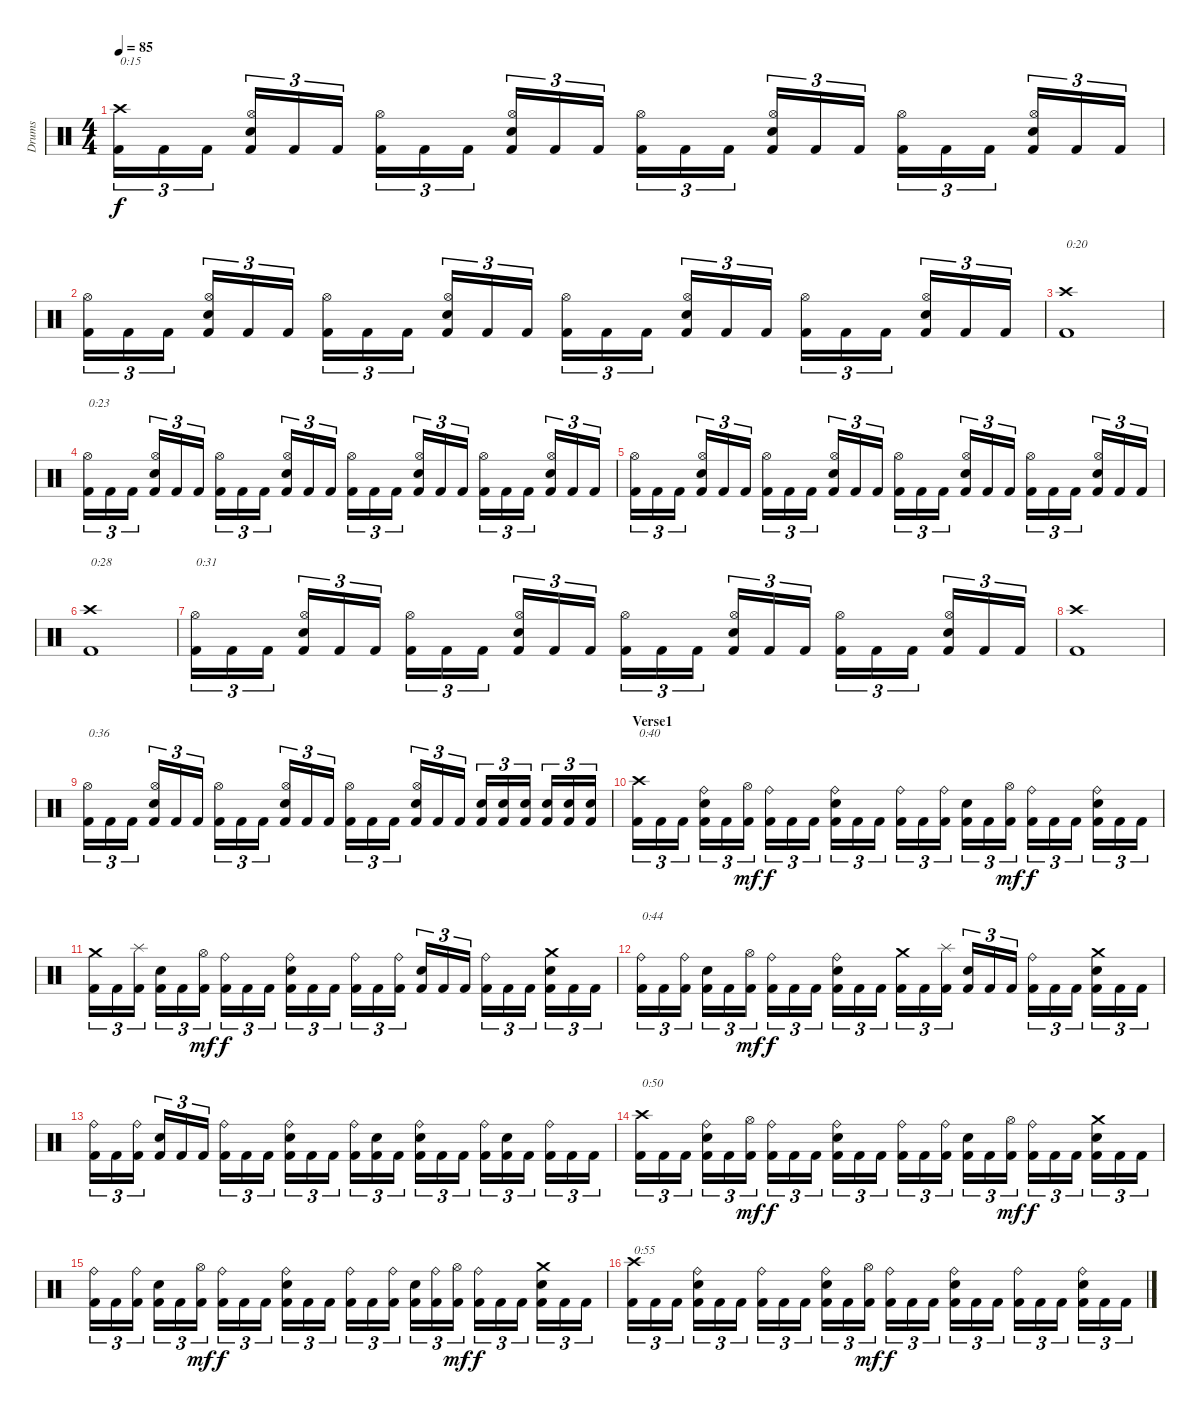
\track ("Drums" "Drums") {instrument percussion}
\staff {score}
\articulation defaults
\ts (4 4)
\tempo 85
\clef neutral
\ks c
("Crash high (hit)" "Kick (hit) 2").16{tu (3 2) txt "0:15" dy f} "Kick (hit) 2".16{tu (3 2)} "Kick (hit) 2".16{tu (3 2)} ("Hi-Hat (open)" "Electric Snare (hit)" "Kick (hit) 2").16{tu (3 2)} "Kick (hit) 2".16{tu (3 2)} "Kick (hit) 2".16{tu (3 2)} ("Hi-Hat (open)" "Kick (hit) 2").16{tu (3 2)} "Kick (hit) 2".16{tu (3 2)} "Kick (hit) 2".16{tu (3 2)} ("Hi-Hat (open)" "Electric Snare (hit)" "Kick (hit) 2").16{tu (3 2)} "Kick (hit) 2".16{tu (3 2)} "Kick (hit) 2".16{tu (3 2)} ("Hi-Hat (open)" "Kick (hit) 2").16{tu (3 2)} "Kick (hit) 2".16{tu (3 2)} "Kick (hit) 2".16{tu (3 2)} ("Hi-Hat (open)" "Electric Snare (hit)" "Kick (hit) 2").16{tu (3 2)} "Kick (hit) 2".16{tu (3 2)} "Kick (hit) 2".16{tu (3 2)} ("Hi-Hat (open)" "Kick (hit) 2").16{tu (3 2)} "Kick (hit) 2".16{tu (3 2)} "Kick (hit) 2".16{tu (3 2)} ("Hi-Hat (open)" "Electric Snare (hit)" "Kick (hit) 2").16{tu (3 2)} "Kick (hit) 2".16{tu (3 2)} "Kick (hit) 2".16{tu (3 2)} |
("Hi-Hat (open)" "Kick (hit) 2").16{tu (3 2)} "Kick (hit) 2".16{tu (3 2)} "Kick (hit) 2".16{tu (3 2)} ("Hi-Hat (open)" "Electric Snare (hit)" "Kick (hit) 2").16{tu (3 2)} "Kick (hit) 2".16{tu (3 2)} "Kick (hit) 2".16{tu (3 2)} ("Hi-Hat (open)" "Kick (hit) 2").16{tu (3 2)} "Kick (hit) 2".16{tu (3 2)} "Kick (hit) 2".16{tu (3 2)} ("Hi-Hat (open)" "Electric Snare (hit)" "Kick (hit) 2").16{tu (3 2)} "Kick (hit) 2".16{tu (3 2)} "Kick (hit) 2".16{tu (3 2)} ("Hi-Hat (open)" "Kick (hit) 2").16{tu (3 2)} "Kick (hit) 2".16{tu (3 2)} "Kick (hit) 2".16{tu (3 2)} ("Hi-Hat (open)" "Electric Snare (hit)" "Kick (hit) 2").16{tu (3 2)} "Kick (hit) 2".16{tu (3 2)} "Kick (hit) 2".16{tu (3 2)} ("Hi-Hat (open)" "Kick (hit) 2").16{tu (3 2)} "Kick (hit) 2".16{tu (3 2)} "Kick (hit) 2".16{tu (3 2)} ("Hi-Hat (open)" "Electric Snare (hit)" "Kick (hit) 2").16{tu (3 2)} "Kick (hit) 2".16{tu (3 2)} "Kick (hit) 2".16{tu (3 2)} |
("Crash high (hit)" "Kick (hit) 2").1{txt "0:20"} |
("Hi-Hat (open)" "Kick (hit) 2").16{tu (3 2) txt "0:23"} "Kick (hit) 2".16{tu (3 2)} "Kick (hit) 2".16{tu (3 2)} ("Hi-Hat (open)" "Electric Snare (hit)" "Kick (hit) 2").16{tu (3 2)} "Kick (hit) 2".16{tu (3 2)} "Kick (hit) 2".16{tu (3 2)} ("Hi-Hat (open)" "Kick (hit) 2").16{tu (3 2)} "Kick (hit) 2".16{tu (3 2)} "Kick (hit) 2".16{tu (3 2)} ("Hi-Hat (open)" "Electric Snare (hit)" "Kick (hit) 2").16{tu (3 2)} "Kick (hit) 2".16{tu (3 2)} "Kick (hit) 2".16{tu (3 2)} ("Hi-Hat (open)" "Kick (hit) 2").16{tu (3 2)} "Kick (hit) 2".16{tu (3 2)} "Kick (hit) 2".16{tu (3 2)} ("Hi-Hat (open)" "Electric Snare (hit)" "Kick (hit) 2").16{tu (3 2)} "Kick (hit) 2".16{tu (3 2)} "Kick (hit) 2".16{tu (3 2)} ("Hi-Hat (open)" "Kick (hit) 2").16{tu (3 2)} "Kick (hit) 2".16{tu (3 2)} "Kick (hit) 2".16{tu (3 2)} ("Hi-Hat (open)" "Electric Snare (hit)" "Kick (hit) 2").16{tu (3 2)} "Kick (hit) 2".16{tu (3 2)} "Kick (hit) 2".16{tu (3 2)} |
("Hi-Hat (open)" "Kick (hit) 2").16{tu (3 2)} "Kick (hit) 2".16{tu (3 2)} "Kick (hit) 2".16{tu (3 2)} ("Hi-Hat (open)" "Electric Snare (hit)" "Kick (hit) 2").16{tu (3 2)} "Kick (hit) 2".16{tu (3 2)} "Kick (hit) 2".16{tu (3 2)} ("Hi-Hat (open)" "Kick (hit) 2").16{tu (3 2)} "Kick (hit) 2".16{tu (3 2)} "Kick (hit) 2".16{tu (3 2)} ("Hi-Hat (open)" "Electric Snare (hit)" "Kick (hit) 2").16{tu (3 2)} "Kick (hit) 2".16{tu (3 2)} "Kick (hit) 2".16{tu (3 2)} ("Hi-Hat (open)" "Kick (hit) 2").16{tu (3 2)} "Kick (hit) 2".16{tu (3 2)} "Kick (hit) 2".16{tu (3 2)} ("Hi-Hat (open)" "Electric Snare (hit)" "Kick (hit) 2").16{tu (3 2)} "Kick (hit) 2".16{tu (3 2)} "Kick (hit) 2".16{tu (3 2)} ("Hi-Hat (open)" "Kick (hit) 2").16{tu (3 2)} "Kick (hit) 2".16{tu (3 2)} "Kick (hit) 2".16{tu (3 2)} ("Hi-Hat (open)" "Electric Snare (hit)" "Kick (hit) 2").16{tu (3 2)} "Kick (hit) 2".16{tu (3 2)} "Kick (hit) 2".16{tu (3 2)} |
("Crash high (hit)" "Kick (hit) 2").1{txt "0:28"} |
("Hi-Hat (open)" "Kick (hit) 2").16{tu (3 2) txt "0:31"} "Kick (hit) 2".16{tu (3 2)} "Kick (hit) 2".16{tu (3 2)} ("Hi-Hat (open)" "Electric Snare (hit)" "Kick (hit) 2").16{tu (3 2)} "Kick (hit) 2".16{tu (3 2)} "Kick (hit) 2".16{tu (3 2)} ("Hi-Hat (open)" "Kick (hit) 2").16{tu (3 2)} "Kick (hit) 2".16{tu (3 2)} "Kick (hit) 2".16{tu (3 2)} ("Hi-Hat (open)" "Electric Snare (hit)" "Kick (hit) 2").16{tu (3 2)} "Kick (hit) 2".16{tu (3 2)} "Kick (hit) 2".16{tu (3 2)} ("Hi-Hat (open)" "Kick (hit) 2").16{tu (3 2)} "Kick (hit) 2".16{tu (3 2)} "Kick (hit) 2".16{tu (3 2)} ("Hi-Hat (open)" "Electric Snare (hit)" "Kick (hit) 2").16{tu (3 2)} "Kick (hit) 2".16{tu (3 2)} "Kick (hit) 2".16{tu (3 2)} ("Hi-Hat (open)" "Kick (hit) 2").16{tu (3 2)} "Kick (hit) 2".16{tu (3 2)} "Kick (hit) 2".16{tu (3 2)} ("Hi-Hat (open)" "Electric Snare (hit)" "Kick (hit) 2").16{tu (3 2)} "Kick (hit) 2".16{tu (3 2)} "Kick (hit) 2".16{tu (3 2)} |
("Crash high (hit)" "Kick (hit) 2").1 |
("Hi-Hat (open)" "Kick (hit) 2").16{tu (3 2) txt "0:36"} "Kick (hit) 2".16{tu (3 2)} "Kick (hit) 2".16{tu (3 2)} ("Hi-Hat (open)" "Electric Snare (hit)" "Kick (hit) 2").16{tu (3 2)} "Kick (hit) 2".16{tu (3 2)} "Kick (hit) 2".16{tu (3 2)} ("Hi-Hat (open)" "Kick (hit) 2").16{tu (3 2)} "Kick (hit) 2".16{tu (3 2)} "Kick (hit) 2".16{tu (3 2)} ("Hi-Hat (open)" "Electric Snare (hit)" "Kick (hit) 2").16{tu (3 2)} "Kick (hit) 2".16{tu (3 2)} "Kick (hit) 2".16{tu (3 2)} ("Hi-Hat (open)" "Kick (hit) 2").16{tu (3 2)} "Kick (hit) 2".16{tu (3 2)} "Kick (hit) 2".16{tu (3 2)} ("Hi-Hat (open)" "Electric Snare (hit)" "Kick (hit) 2").16{tu (3 2)} "Kick (hit) 2".16{tu (3 2)} "Kick (hit) 2".16{tu (3 2)} ("Electric Snare (hit)" "Kick (hit) 2").16{tu (3 2)} ("Electric Snare (hit)" "Kick (hit) 2").16{tu (3 2)} ("Electric Snare (hit)" "Kick (hit) 2").16{tu (3 2)} ("Electric Snare (hit)" "Kick (hit) 2").16{tu (3 2)} ("Electric Snare (hit)" "Kick (hit) 2").16{tu (3 2)} ("Electric Snare (hit)" "Kick (hit) 2").16{tu (3 2)} |
\section ("" "Verse1")
("Crash high (hit)" "Kick (hit) 2").16{tu (3 2) txt "0:40"} "Kick (hit) 2".16{tu (3 2)} "Kick (hit) 2".16{tu (3 2)} ("Ride (bell)" "Electric Snare (hit)" "Kick (hit) 2").16{tu (3 2)} "Kick (hit) 2".16{tu (3 2)} ("Hi-Hat (open)" "Kick (hit) 2").16{tu (3 2) dy mf} ("Ride (bell)" "Kick (hit) 2").16{tu (3 2) dy f} "Kick (hit) 2".16{tu (3 2)} "Kick (hit) 2".16{tu (3 2)} ("Ride (bell)" "Electric Snare (hit)" "Kick (hit) 2").16{tu (3 2)} "Kick (hit) 2".16{tu (3 2)} "Kick (hit) 2".16{tu (3 2)} ("Ride (bell)" "Kick (hit) 2").16{tu (3 2)} "Kick (hit) 2".16{tu (3 2)} ("Ride (bell)" "Kick (hit) 2").16{tu (3 2)} ("Electric Snare (hit)" "Kick (hit) 2").16{tu (3 2)} "Kick (hit) 2".16{tu (3 2)} ("Hi-Hat (open)" "Kick (hit) 2").16{tu (3 2) dy mf} ("Ride (bell)" "Kick (hit) 2").16{tu (3 2) dy f} "Kick (hit) 2".16{tu (3 2)} "Kick (hit) 2".16{tu (3 2)} ("Ride (bell)" "Electric Snare (hit)" "Kick (hit) 2").16{tu (3 2)} "Kick (hit) 2".16{tu (3 2)} "Kick (hit) 2".16{tu (3 2)} |
("Crash medium (hit)" "Kick (hit) 2").16{tu (3 2)} "Kick (hit) 2".16{tu (3 2)} ("Splash (hit)" "Kick (hit) 2").16{tu (3 2)} ("Electric Snare (hit)" "Kick (hit) 2").16{tu (3 2)} "Kick (hit) 2".16{tu (3 2)} ("Hi-Hat (open)" "Kick (hit) 2").16{tu (3 2) dy mf} ("Ride (bell)" "Kick (hit) 2").16{tu (3 2) dy f} "Kick (hit) 2".16{tu (3 2)} "Kick (hit) 2".16{tu (3 2)} ("Ride (bell)" "Electric Snare (hit)" "Kick (hit) 2").16{tu (3 2)} "Kick (hit) 2".16{tu (3 2)} "Kick (hit) 2".16{tu (3 2)} ("Ride (bell)" "Kick (hit) 2").16{tu (3 2)} "Kick (hit) 2".16{tu (3 2)} ("Ride (bell)" "Kick (hit) 2").16{tu (3 2)} ("Electric Snare (hit)" "Kick (hit) 2").16{tu (3 2)} "Kick (hit) 2".16{tu (3 2)} "Kick (hit) 2".16{tu (3 2)} ("Ride (bell)" "Kick (hit) 2").16{tu (3 2)} "Kick (hit) 2".16{tu (3 2)} "Kick (hit) 2".16{tu (3 2)} ("Crash medium (hit)" "Electric Snare (hit)" "Kick (hit) 2").16{tu (3 2)} "Kick (hit) 2".16{tu (3 2)} "Kick (hit) 2".16{tu (3 2)} |
("Ride (bell)" "Kick (hit) 2").16{tu (3 2) txt "0:44"} "Kick (hit) 2".16{tu (3 2)} ("Ride (bell)" "Kick (hit) 2").16{tu (3 2)} ("Electric Snare (hit)" "Kick (hit) 2").16{tu (3 2)} "Kick (hit) 2".16{tu (3 2)} ("Hi-Hat (open)" "Kick (hit) 2").16{tu (3 2) dy mf} ("Ride (bell)" "Kick (hit) 2").16{tu (3 2) dy f} "Kick (hit) 2".16{tu (3 2)} "Kick (hit) 2".16{tu (3 2)} ("Ride (bell)" "Electric Snare (hit)" "Kick (hit) 2").16{tu (3 2)} "Kick (hit) 2".16{tu (3 2)} "Kick (hit) 2".16{tu (3 2)} ("Crash medium (hit)" "Kick (hit) 2").16{tu (3 2)} "Kick (hit) 2".16{tu (3 2)} ("Splash (hit)" "Kick (hit) 2").16{tu (3 2)} ("Electric Snare (hit)" "Kick (hit) 2").16{tu (3 2)} "Kick (hit) 2".16{tu (3 2)} "Kick (hit) 2".16{tu (3 2)} ("Ride (bell)" "Kick (hit) 2").16{tu (3 2)} "Kick (hit) 2".16{tu (3 2)} "Kick (hit) 2".16{tu (3 2)} ("Crash medium (hit)" "Electric Snare (hit)" "Kick (hit) 2").16{tu (3 2)} "Kick (hit) 2".16{tu (3 2)} "Kick (hit) 2".16{tu (3 2)} |
("Ride (bell)" "Kick (hit) 2").16{tu (3 2)} "Kick (hit) 2".16{tu (3 2)} ("Ride (bell)" "Kick (hit) 2").16{tu (3 2)} ("Electric Snare (hit)" "Kick (hit) 2").16{tu (3 2)} "Kick (hit) 2".16{tu (3 2)} "Kick (hit) 2".16{tu (3 2)} ("Ride (bell)" "Kick (hit) 2").16{tu (3 2)} "Kick (hit) 2".16{tu (3 2)} "Kick (hit) 2".16{tu (3 2)} ("Ride (bell)" "Electric Snare (hit)" "Kick (hit) 2").16{tu (3 2)} "Kick (hit) 2".16{tu (3 2)} "Kick (hit) 2".16{tu (3 2)} ("Ride (bell)" "Kick (hit) 2").16{tu (3 2)} ("Electric Snare (hit)" "Kick (hit) 2").16{tu (3 2)} "Kick (hit) 2".16{tu (3 2)} ("Ride (bell)" "Electric Snare (hit)" "Kick (hit) 2").16{tu (3 2)} "Kick (hit) 2".16{tu (3 2)} "Kick (hit) 2".16{tu (3 2)} ("Ride (bell)" "Kick (hit) 2").16{tu (3 2)} ("Electric Snare (hit)" "Kick (hit) 2").16{tu (3 2)} "Kick (hit) 2".16{tu (3 2)} ("Ride (bell)" "Kick (hit) 2").16{tu (3 2)} "Kick (hit) 2".16{tu (3 2)} "Kick (hit) 2".16{tu (3 2)} |
("Crash high (hit)" "Kick (hit) 2").16{tu (3 2) txt "0:50"} "Kick (hit) 2".16{tu (3 2)} "Kick (hit) 2".16{tu (3 2)} ("Ride (bell)" "Electric Snare (hit)" "Kick (hit) 2").16{tu (3 2)} "Kick (hit) 2".16{tu (3 2)} ("Hi-Hat (open)" "Kick (hit) 2").16{tu (3 2) dy mf} ("Ride (bell)" "Kick (hit) 2").16{tu (3 2) dy f} "Kick (hit) 2".16{tu (3 2)} "Kick (hit) 2".16{tu (3 2)} ("Ride (bell)" "Electric Snare (hit)" "Kick (hit) 2").16{tu (3 2)} "Kick (hit) 2".16{tu (3 2)} "Kick (hit) 2".16{tu (3 2)} ("Ride (bell)" "Kick (hit) 2").16{tu (3 2)} "Kick (hit) 2".16{tu (3 2)} ("Ride (bell)" "Kick (hit) 2").16{tu (3 2)} ("Electric Snare (hit)" "Kick (hit) 2").16{tu (3 2)} "Kick (hit) 2".16{tu (3 2)} ("Hi-Hat (open)" "Kick (hit) 2").16{tu (3 2) dy mf} ("Ride (bell)" "Kick (hit) 2").16{tu (3 2) dy f} "Kick (hit) 2".16{tu (3 2)} "Kick (hit) 2".16{tu (3 2)} ("Crash medium (hit)" "Electric Snare (hit)" "Kick (hit) 2").16{tu (3 2)} "Kick (hit) 2".16{tu (3 2)} "Kick (hit) 2".16{tu (3 2)} |
("Ride (bell)" "Kick (hit) 2").16{tu (3 2)} "Kick (hit) 2".16{tu (3 2)} ("Ride (bell)" "Kick (hit) 2").16{tu (3 2)} ("Electric Snare (hit)" "Kick (hit) 2").16{tu (3 2)} "Kick (hit) 2".16{tu (3 2)} ("Hi-Hat (open)" "Kick (hit) 2").16{tu (3 2) dy mf} ("Ride (bell)" "Kick (hit) 2").16{tu (3 2) dy f} "Kick (hit) 2".16{tu (3 2)} "Kick (hit) 2".16{tu (3 2)} ("Ride (bell)" "Electric Snare (hit)" "Kick (hit) 2").16{tu (3 2)} "Kick (hit) 2".16{tu (3 2)} "Kick (hit) 2".16{tu (3 2)} ("Ride (bell)" "Kick (hit) 2").16{tu (3 2)} "Kick (hit) 2".16{tu (3 2)} ("Ride (bell)" "Kick (hit) 2").16{tu (3 2)} ("Electric Snare (hit)" "Kick (hit) 2").16{tu (3 2)} ("Ride (bell)" "Kick (hit) 2").16{tu (3 2)} ("Hi-Hat (open)" "Kick (hit) 2").16{tu (3 2) dy mf} ("Ride (bell)" "Kick (hit) 2").16{tu (3 2) dy f} "Kick (hit) 2".16{tu (3 2)} "Kick (hit) 2".16{tu (3 2)} ("Crash medium (hit)" "Electric Snare (hit)" "Kick (hit) 2").16{tu (3 2)} "Kick (hit) 2".16{tu (3 2)} "Kick (hit) 2".16{tu (3 2)} |
("Crash high (hit)" "Kick (hit) 2").16{tu (3 2) txt "0:55"} "Kick (hit) 2".16{tu (3 2)} "Kick (hit) 2".16{tu (3 2)} ("Ride (bell)" "Electric Snare (hit)" "Kick (hit) 2").16{tu (3 2)} "Kick (hit) 2".16{tu (3 2)} "Kick (hit) 2".16{tu (3 2)} ("Ride (bell)" "Kick (hit) 2").16{tu (3 2)} "Kick (hit) 2".16{tu (3 2)} "Kick (hit) 2".16{tu (3 2)} ("Ride (bell)" "Electric Snare (hit)" "Kick (hit) 2").16{tu (3 2)} "Kick (hit) 2".16{tu (3 2)} ("Hi-Hat (open)" "Kick (hit) 2").16{tu (3 2) dy mf} ("Ride (bell)" "Kick (hit) 2").16{tu (3 2) dy f} "Kick (hit) 2".16{tu (3 2)} "Kick (hit) 2".16{tu (3 2)} ("Ride (bell)" "Electric Snare (hit)" "Kick (hit) 2").16{tu (3 2)} "Kick (hit) 2".16{tu (3 2)} "Kick (hit) 2".16{tu (3 2)} ("Ride (bell)" "Kick (hit) 2").16{tu (3 2)} "Kick (hit) 2".16{tu (3 2)} "Kick (hit) 2".16{tu (3 2)} ("Ride (bell)" "Electric Snare (hit)" "Kick (hit) 2").16{tu (3 2)} "Kick (hit) 2".16{tu (3 2)} "Kick (hit) 2".16{tu (3 2)}
